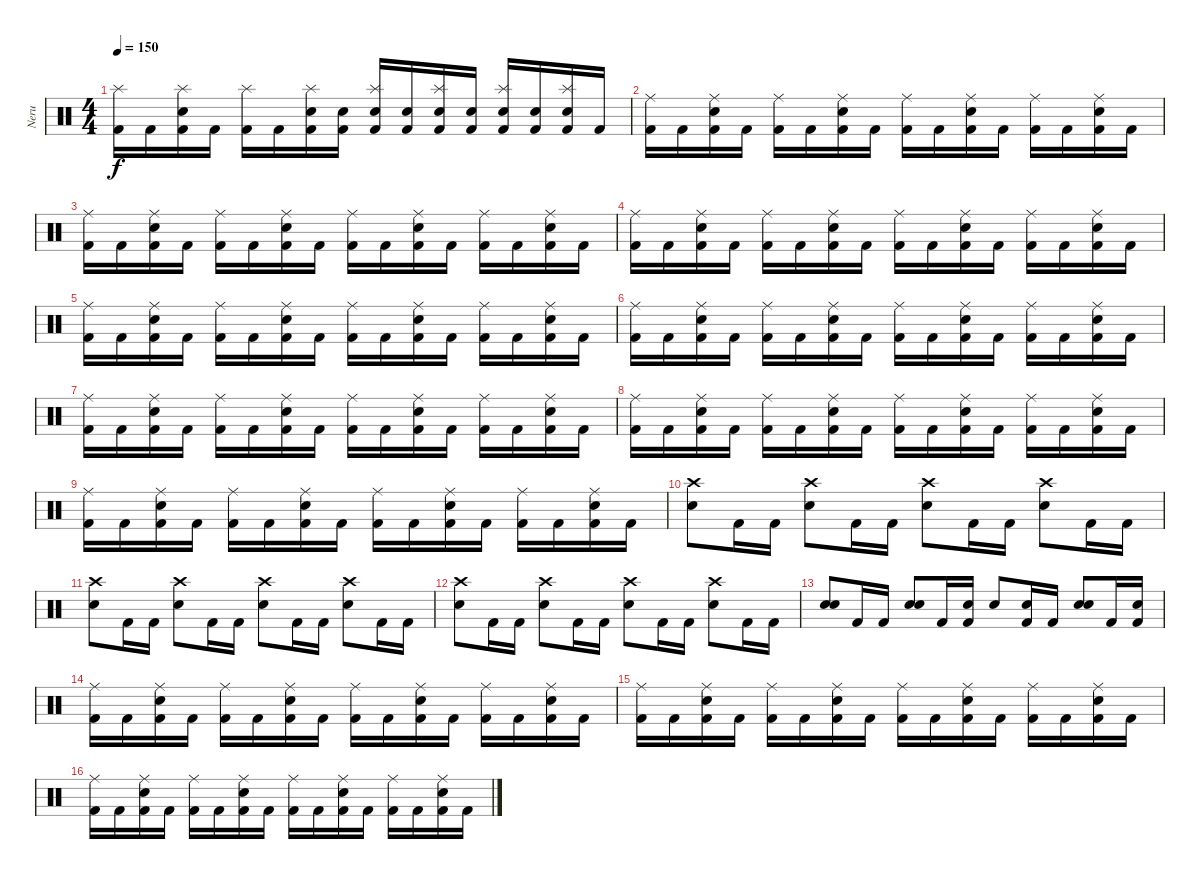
\track ("Neru" "Neru") {instrument percussion}
\staff {score}
\articulation defaults
\ts (4 4)
\tempo 150
\clef neutral
\ks c
("Kick (hit) 2" "Splash (hit)").16{dy f} "Kick (hit) 2".16 ("Kick (hit) 2" "Electric Snare (hit)" "Splash (hit)").16 "Kick (hit) 2".16 ("Kick (hit) 2" "Splash (hit)").16 "Kick (hit) 2".16 ("Kick (hit) 2" "Electric Snare (hit)" "Splash (hit)").16 ("Kick (hit) 2" "Electric Snare (hit)").16 ("Kick (hit) 2" "Electric Snare (hit)" "Splash (hit)").16 ("Kick (hit) 2" "Electric Snare (hit)").16 ("Kick (hit) 2" "Electric Snare (hit)" "Splash (hit)").16 ("Kick (hit) 2" "Electric Snare (hit)").16 ("Kick (hit) 2" "Electric Snare (hit)" "Splash (hit)").16 ("Kick (hit) 2" "Electric Snare (hit)").16 ("Kick (hit) 2" "Electric Snare (hit)" "Splash (hit)").16 "Kick (hit) 2".16 |
("Kick (hit) 2" "Ride (middle)").16 "Kick (hit) 2".16 ("Kick (hit) 2" "Electric Snare (hit)" "Ride (middle)").16 "Kick (hit) 2".16 ("Kick (hit) 2" "Ride (middle)").16 "Kick (hit) 2".16 ("Kick (hit) 2" "Electric Snare (hit)" "Ride (middle)").16 "Kick (hit) 2".16 ("Kick (hit) 2" "Ride (middle)").16 "Kick (hit) 2".16 ("Kick (hit) 2" "Electric Snare (hit)" "Ride (middle)").16 "Kick (hit) 2".16 ("Kick (hit) 2" "Ride (middle)").16 "Kick (hit) 2".16 ("Kick (hit) 2" "Electric Snare (hit)" "Ride (middle)").16 "Kick (hit) 2".16 |
("Kick (hit) 2" "Ride (middle)").16 "Kick (hit) 2".16 ("Kick (hit) 2" "Electric Snare (hit)" "Ride (middle)").16 "Kick (hit) 2".16 ("Kick (hit) 2" "Ride (middle)").16 "Kick (hit) 2".16 ("Kick (hit) 2" "Electric Snare (hit)" "Ride (middle)").16 "Kick (hit) 2".16 ("Kick (hit) 2" "Ride (middle)").16 "Kick (hit) 2".16 ("Kick (hit) 2" "Electric Snare (hit)" "Ride (middle)").16 "Kick (hit) 2".16 ("Kick (hit) 2" "Ride (middle)").16 "Kick (hit) 2".16 ("Kick (hit) 2" "Electric Snare (hit)" "Ride (middle)").16 "Kick (hit) 2".16 |
("Kick (hit) 2" "Ride (middle)").16 "Kick (hit) 2".16 ("Kick (hit) 2" "Electric Snare (hit)" "Ride (middle)").16 "Kick (hit) 2".16 ("Kick (hit) 2" "Ride (middle)").16 "Kick (hit) 2".16 ("Kick (hit) 2" "Electric Snare (hit)" "Ride (middle)").16 "Kick (hit) 2".16 ("Kick (hit) 2" "Ride (middle)").16 "Kick (hit) 2".16 ("Kick (hit) 2" "Electric Snare (hit)" "Ride (middle)").16 "Kick (hit) 2".16 ("Kick (hit) 2" "Ride (middle)").16 "Kick (hit) 2".16 ("Kick (hit) 2" "Electric Snare (hit)" "Ride (middle)").16 "Kick (hit) 2".16 |
("Kick (hit) 2" "Ride (middle)").16 "Kick (hit) 2".16 ("Kick (hit) 2" "Electric Snare (hit)" "Ride (middle)").16 "Kick (hit) 2".16 ("Kick (hit) 2" "Ride (middle)").16 "Kick (hit) 2".16 ("Kick (hit) 2" "Electric Snare (hit)" "Ride (middle)").16 "Kick (hit) 2".16 ("Kick (hit) 2" "Ride (middle)").16 "Kick (hit) 2".16 ("Kick (hit) 2" "Electric Snare (hit)" "Ride (middle)").16 "Kick (hit) 2".16 ("Kick (hit) 2" "Ride (middle)").16 "Kick (hit) 2".16 ("Kick (hit) 2" "Electric Snare (hit)" "Ride (middle)").16 "Kick (hit) 2".16 |
("Kick (hit) 2" "Ride (middle)").16 "Kick (hit) 2".16 ("Kick (hit) 2" "Electric Snare (hit)" "Ride (middle)").16 "Kick (hit) 2".16 ("Kick (hit) 2" "Ride (middle)").16 "Kick (hit) 2".16 ("Kick (hit) 2" "Electric Snare (hit)" "Ride (middle)").16 "Kick (hit) 2".16 ("Kick (hit) 2" "Ride (middle)").16 "Kick (hit) 2".16 ("Kick (hit) 2" "Electric Snare (hit)" "Ride (middle)").16 "Kick (hit) 2".16 ("Kick (hit) 2" "Ride (middle)").16 "Kick (hit) 2".16 ("Kick (hit) 2" "Electric Snare (hit)" "Ride (middle)").16 "Kick (hit) 2".16 |
("Kick (hit) 2" "Ride (middle)").16 "Kick (hit) 2".16 ("Kick (hit) 2" "Electric Snare (hit)" "Ride (middle)").16 "Kick (hit) 2".16 ("Kick (hit) 2" "Ride (middle)").16 "Kick (hit) 2".16 ("Kick (hit) 2" "Electric Snare (hit)" "Ride (middle)").16 "Kick (hit) 2".16 ("Kick (hit) 2" "Ride (middle)").16 "Kick (hit) 2".16 ("Kick (hit) 2" "Electric Snare (hit)" "Ride (middle)").16 "Kick (hit) 2".16 ("Kick (hit) 2" "Ride (middle)").16 "Kick (hit) 2".16 ("Kick (hit) 2" "Electric Snare (hit)" "Ride (middle)").16 "Kick (hit) 2".16 |
("Kick (hit) 2" "Ride (middle)").16 "Kick (hit) 2".16 ("Kick (hit) 2" "Electric Snare (hit)" "Ride (middle)").16 "Kick (hit) 2".16 ("Kick (hit) 2" "Ride (middle)").16 "Kick (hit) 2".16 ("Kick (hit) 2" "Electric Snare (hit)" "Ride (middle)").16 "Kick (hit) 2".16 ("Kick (hit) 2" "Ride (middle)").16 "Kick (hit) 2".16 ("Kick (hit) 2" "Electric Snare (hit)" "Ride (middle)").16 "Kick (hit) 2".16 ("Kick (hit) 2" "Ride (middle)").16 "Kick (hit) 2".16 ("Kick (hit) 2" "Electric Snare (hit)" "Ride (middle)").16 "Kick (hit) 2".16 |
("Kick (hit) 2" "Ride (middle)").16 "Kick (hit) 2".16 ("Kick (hit) 2" "Electric Snare (hit)" "Ride (middle)").16 "Kick (hit) 2".16 ("Kick (hit) 2" "Ride (middle)").16 "Kick (hit) 2".16 ("Kick (hit) 2" "Electric Snare (hit)" "Ride (middle)").16 "Kick (hit) 2".16 ("Kick (hit) 2" "Ride (middle)").16 "Kick (hit) 2".16 ("Kick (hit) 2" "Electric Snare (hit)" "Ride (middle)").16 "Kick (hit) 2".16 ("Kick (hit) 2" "Ride (middle)").16 "Kick (hit) 2".16 ("Kick (hit) 2" "Electric Snare (hit)" "Ride (middle)").16 "Kick (hit) 2".16 |
("Electric Snare (hit)" "Crash high (hit)").8 "Kick (hit) 2".16 "Kick (hit) 2".16 ("Electric Snare (hit)" "Crash high (hit)").8 "Kick (hit) 2".16 "Kick (hit) 2".16 ("Electric Snare (hit)" "Crash high (hit)").8 "Kick (hit) 2".16 "Kick (hit) 2".16 ("Electric Snare (hit)" "Crash high (hit)").8 "Kick (hit) 2".16 "Kick (hit) 2".16 |
("Electric Snare (hit)" "Crash high (hit)").8 "Kick (hit) 2".16 "Kick (hit) 2".16 ("Electric Snare (hit)" "Crash high (hit)").8 "Kick (hit) 2".16 "Kick (hit) 2".16 ("Electric Snare (hit)" "Crash high (hit)").8 "Kick (hit) 2".16 "Kick (hit) 2".16 ("Electric Snare (hit)" "Crash high (hit)").8 "Kick (hit) 2".16 "Kick (hit) 2".16 |
("Electric Snare (hit)" "Crash high (hit)").8 "Kick (hit) 2".16 "Kick (hit) 2".16 ("Electric Snare (hit)" "Crash high (hit)").8 "Kick (hit) 2".16 "Kick (hit) 2".16 ("Electric Snare (hit)" "Crash high (hit)").8 "Kick (hit) 2".16 "Kick (hit) 2".16 ("Electric Snare (hit)" "Crash high (hit)").8 "Kick (hit) 2".16 "Kick (hit) 2".16 |
("Electric Snare (hit)" "Electric Snare (hit)").8 "Kick (hit) 2".16 "Kick (hit) 2".16 ("Electric Snare (hit)" "Electric Snare (hit)").8 "Kick (hit) 2".16 ("Kick (hit) 2" "Electric Snare (hit)").16 "Electric Snare (hit)".8 ("Kick (hit) 2" "Electric Snare (hit)").16 "Kick (hit) 2".16 ("Electric Snare (hit)" "Electric Snare (hit)").8 "Kick (hit) 2".16 ("Kick (hit) 2" "Electric Snare (hit)").16 |
("Kick (hit) 2" "Ride (middle)").16 "Kick (hit) 2".16 ("Kick (hit) 2" "Electric Snare (hit)" "Ride (middle)").16 "Kick (hit) 2".16 ("Kick (hit) 2" "Ride (middle)").16 "Kick (hit) 2".16 ("Kick (hit) 2" "Electric Snare (hit)" "Ride (middle)").16 "Kick (hit) 2".16 ("Kick (hit) 2" "Ride (middle)").16 "Kick (hit) 2".16 ("Kick (hit) 2" "Electric Snare (hit)" "Ride (middle)").16 "Kick (hit) 2".16 ("Kick (hit) 2" "Ride (middle)").16 "Kick (hit) 2".16 ("Kick (hit) 2" "Electric Snare (hit)" "Ride (middle)").16 "Kick (hit) 2".16 |
("Kick (hit) 2" "Ride (middle)").16 "Kick (hit) 2".16 ("Kick (hit) 2" "Electric Snare (hit)" "Ride (middle)").16 "Kick (hit) 2".16 ("Kick (hit) 2" "Ride (middle)").16 "Kick (hit) 2".16 ("Kick (hit) 2" "Electric Snare (hit)" "Ride (middle)").16 "Kick (hit) 2".16 ("Kick (hit) 2" "Ride (middle)").16 "Kick (hit) 2".16 ("Kick (hit) 2" "Electric Snare (hit)" "Ride (middle)").16 "Kick (hit) 2".16 ("Kick (hit) 2" "Ride (middle)").16 "Kick (hit) 2".16 ("Kick (hit) 2" "Electric Snare (hit)" "Ride (middle)").16 "Kick (hit) 2".16 |
("Kick (hit) 2" "Ride (middle)").16 "Kick (hit) 2".16 ("Kick (hit) 2" "Electric Snare (hit)" "Ride (middle)").16 "Kick (hit) 2".16 ("Kick (hit) 2" "Ride (middle)").16 "Kick (hit) 2".16 ("Kick (hit) 2" "Electric Snare (hit)" "Ride (middle)").16 "Kick (hit) 2".16 ("Kick (hit) 2" "Ride (middle)").16 "Kick (hit) 2".16 ("Kick (hit) 2" "Electric Snare (hit)" "Ride (middle)").16 "Kick (hit) 2".16 ("Kick (hit) 2" "Ride (middle)").16 "Kick (hit) 2".16 ("Kick (hit) 2" "Electric Snare (hit)" "Ride (middle)").16 "Kick (hit) 2".16
